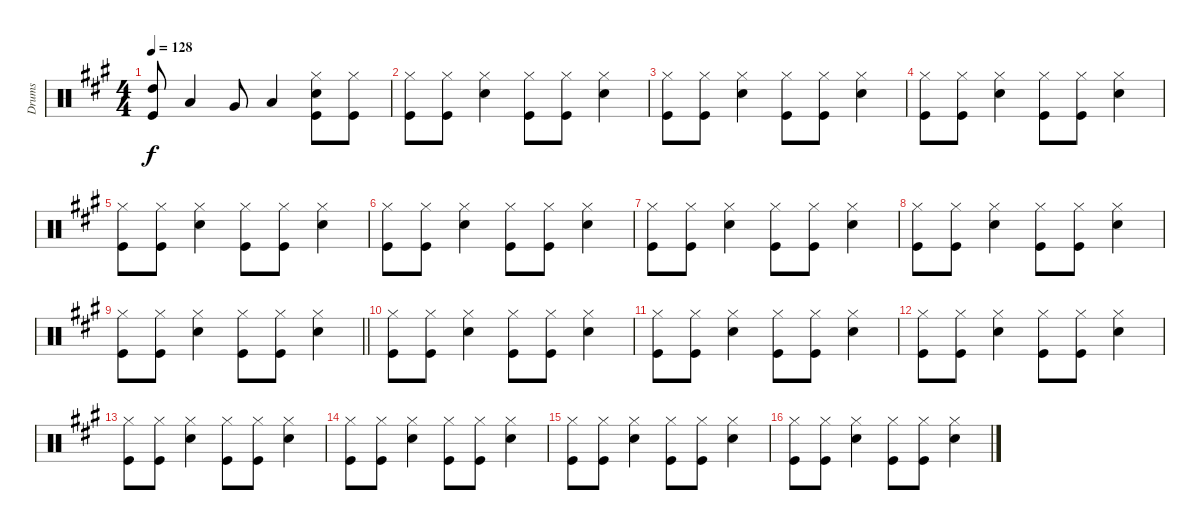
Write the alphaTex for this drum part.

\track ("Drums" "Drums") {instrument percussion}
\staff {score}
\articulation defaults
\ts (4 4)
\tempo 128
\clef neutral
\ks a
("High Tom (hit)" "Kick (hit)").8{dy f} "Low Tom (hit)".4 "Very Low Tom (hit)".8 "Low Floor Tom (hit)".4 ("Hi-Hat (closed)" "Snare (hit) 2" "Kick (hit)").8 ("Hi-Hat (closed)" "Kick (hit)").8 |
("Hi-Hat (closed)" "Kick (hit)").8 ("Hi-Hat (closed)" "Kick (hit)").8 ("Hi-Hat (closed)" "Snare (hit) 2").4 ("Hi-Hat (closed)" "Kick (hit)").8 ("Hi-Hat (closed)" "Kick (hit)").8 ("Hi-Hat (closed)" "Snare (hit) 2").4 |
("Hi-Hat (closed)" "Kick (hit)").8 ("Hi-Hat (closed)" "Kick (hit)").8 ("Hi-Hat (closed)" "Snare (hit) 2").4 ("Hi-Hat (closed)" "Kick (hit)").8 ("Hi-Hat (closed)" "Kick (hit)").8 ("Hi-Hat (closed)" "Snare (hit) 2").4 |
("Hi-Hat (closed)" "Kick (hit)").8 ("Hi-Hat (closed)" "Kick (hit)").8 ("Hi-Hat (closed)" "Snare (hit) 2").4 ("Hi-Hat (closed)" "Kick (hit)").8 ("Hi-Hat (closed)" "Kick (hit)").8 ("Hi-Hat (closed)" "Snare (hit) 2").4 |
("Hi-Hat (closed)" "Kick (hit)").8 ("Hi-Hat (closed)" "Kick (hit)").8 ("Hi-Hat (closed)" "Snare (hit) 2").4 ("Hi-Hat (closed)" "Kick (hit)").8 ("Hi-Hat (closed)" "Kick (hit)").8 ("Hi-Hat (closed)" "Snare (hit) 2").4 |
("Hi-Hat (closed)" "Kick (hit)").8 ("Hi-Hat (closed)" "Kick (hit)").8 ("Hi-Hat (closed)" "Snare (hit) 2").4 ("Hi-Hat (closed)" "Kick (hit)").8 ("Hi-Hat (closed)" "Kick (hit)").8 ("Hi-Hat (closed)" "Snare (hit) 2").4 |
("Hi-Hat (closed)" "Kick (hit)").8 ("Hi-Hat (closed)" "Kick (hit)").8 ("Hi-Hat (closed)" "Snare (hit) 2").4 ("Hi-Hat (closed)" "Kick (hit)").8 ("Hi-Hat (closed)" "Kick (hit)").8 ("Hi-Hat (closed)" "Snare (hit) 2").4 |
("Hi-Hat (closed)" "Kick (hit)").8 ("Hi-Hat (closed)" "Kick (hit)").8 ("Hi-Hat (closed)" "Snare (hit) 2").4 ("Hi-Hat (closed)" "Kick (hit)").8 ("Hi-Hat (closed)" "Kick (hit)").8 ("Hi-Hat (closed)" "Snare (hit) 2").4 |
\barLineRight lightlight
("Hi-Hat (closed)" "Kick (hit)").8 ("Hi-Hat (closed)" "Kick (hit)").8 ("Hi-Hat (closed)" "Snare (hit) 2").4 ("Hi-Hat (closed)" "Kick (hit)").8 ("Hi-Hat (closed)" "Kick (hit)").8 ("Hi-Hat (closed)" "Snare (hit) 2").4 |
("Hi-Hat (closed)" "Kick (hit)").8 ("Hi-Hat (closed)" "Kick (hit)").8 ("Hi-Hat (closed)" "Snare (hit) 2").4 ("Hi-Hat (closed)" "Kick (hit)").8 ("Hi-Hat (closed)" "Kick (hit)").8 ("Hi-Hat (closed)" "Snare (hit) 2").4 |
("Hi-Hat (closed)" "Kick (hit)").8 ("Hi-Hat (closed)" "Kick (hit)").8 ("Hi-Hat (closed)" "Snare (hit) 2").4 ("Hi-Hat (closed)" "Kick (hit)").8 ("Hi-Hat (closed)" "Kick (hit)").8 ("Hi-Hat (closed)" "Snare (hit) 2").4 |
("Hi-Hat (closed)" "Kick (hit)").8 ("Hi-Hat (closed)" "Kick (hit)").8 ("Hi-Hat (closed)" "Snare (hit) 2").4 ("Hi-Hat (closed)" "Kick (hit)").8 ("Hi-Hat (closed)" "Kick (hit)").8 ("Hi-Hat (closed)" "Snare (hit) 2").4 |
("Hi-Hat (closed)" "Kick (hit)").8 ("Hi-Hat (closed)" "Kick (hit)").8 ("Hi-Hat (closed)" "Snare (hit) 2").4 ("Hi-Hat (closed)" "Kick (hit)").8 ("Hi-Hat (closed)" "Kick (hit)").8 ("Hi-Hat (closed)" "Snare (hit) 2").4 |
("Hi-Hat (closed)" "Kick (hit)").8 ("Hi-Hat (closed)" "Kick (hit)").8 ("Hi-Hat (closed)" "Snare (hit) 2").4 ("Hi-Hat (closed)" "Kick (hit)").8 ("Hi-Hat (closed)" "Kick (hit)").8 ("Hi-Hat (closed)" "Snare (hit) 2").4 |
("Hi-Hat (closed)" "Kick (hit)").8 ("Hi-Hat (closed)" "Kick (hit)").8 ("Hi-Hat (closed)" "Snare (hit) 2").4 ("Hi-Hat (closed)" "Kick (hit)").8 ("Hi-Hat (closed)" "Kick (hit)").8 ("Hi-Hat (closed)" "Snare (hit) 2").4 |
("Hi-Hat (closed)" "Kick (hit)").8 ("Hi-Hat (closed)" "Kick (hit)").8 ("Hi-Hat (closed)" "Snare (hit) 2").4 ("Hi-Hat (closed)" "Kick (hit)").8 ("Hi-Hat (closed)" "Kick (hit)").8 ("Hi-Hat (closed)" "Snare (hit) 2").4
